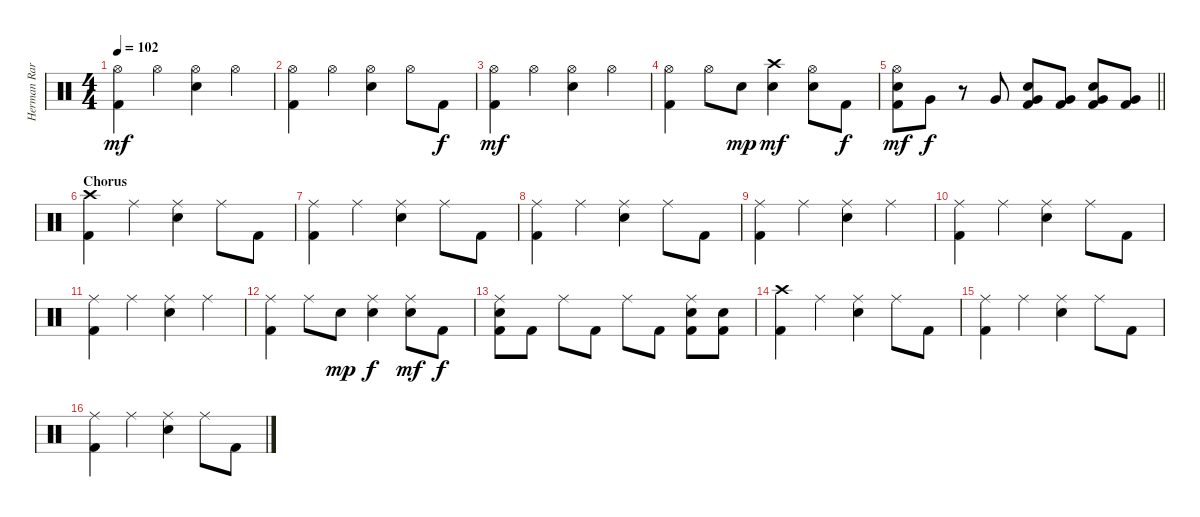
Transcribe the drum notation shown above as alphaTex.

\track ("Herman Rarebell" "Herman Rar") {instrument percussion}
\staff {score}
\articulation defaults
\ts (4 4)
\tempo 102
\clef neutral
\ks c
("Hi-Hat (open)" "Kick (hit) 2").4{dy mf} "Hi-Hat (open)".4 ("Hi-Hat (open)" "Electric Snare (hit)").4 "Hi-Hat (open)".4 |
("Hi-Hat (open)" "Kick (hit) 2").4 "Hi-Hat (open)".4 ("Hi-Hat (open)" "Electric Snare (hit)").4 "Hi-Hat (open)".8 "Kick (hit) 2".8{dy f} |
("Hi-Hat (open)" "Kick (hit) 2").4{dy mf} "Hi-Hat (open)".4 ("Hi-Hat (open)" "Electric Snare (hit)").4 "Hi-Hat (open)".4 |
("Hi-Hat (open)" "Kick (hit) 2").4 "Hi-Hat (open)".8 "Electric Snare (hit)".8{dy mp} ("Crash high (hit)" "Electric Snare (hit)").4{dy mf} ("Hi-Hat (open)" "Electric Snare (hit)").8 "Kick (hit) 2".8{dy f} |
\barLineRight lightlight
("Hi-Hat (open)" "Electric Snare (hit)" "Kick (hit) 2").8{dy mf} "Very Low Tom (hit)".8{dy f} r.8 "Very Low Tom (hit)".8 ("Very Low Tom (hit)" "Electric Snare (hit)" "Kick (hit) 2").8 ("Very Low Tom (hit)" "Kick (hit) 2").8 ("Very Low Tom (hit)" "Electric Snare (hit)" "Kick (hit) 2").8 ("Very Low Tom (hit)" "Kick (hit) 2").8 |
\section ("" "Chorus")
("Crash high (hit)" "Kick (hit) 2").4 "Ride (middle)".4 ("Ride (middle)" "Electric Snare (hit)").4 "Ride (middle)".8 "Kick (hit) 2".8 |
("Ride (middle)" "Kick (hit) 2").4 "Ride (middle)".4 ("Ride (middle)" "Electric Snare (hit)").4 "Ride (middle)".8 "Kick (hit) 2".8 |
("Ride (middle)" "Kick (hit) 2").4 "Ride (middle)".4 ("Ride (middle)" "Electric Snare (hit)").4 "Ride (middle)".8 "Kick (hit) 2".8 |
("Ride (middle)" "Kick (hit) 2").4 "Ride (middle)".4 ("Ride (middle)" "Electric Snare (hit)").4 "Ride (middle)".4 |
("Ride (middle)" "Kick (hit) 2").4 "Ride (middle)".4 ("Ride (middle)" "Electric Snare (hit)").4 "Ride (middle)".8 "Kick (hit) 2".8 |
("Ride (middle)" "Kick (hit) 2").4 "Ride (middle)".4 ("Ride (middle)" "Electric Snare (hit)").4 "Ride (middle)".4 |
("Ride (middle)" "Kick (hit) 2").4 "Ride (middle)".8 "Electric Snare (hit)".8{dy mp} ("Ride (middle)" "Electric Snare (hit)").4{dy f} ("Ride (middle)" "Electric Snare (hit)").8{dy mf} "Kick (hit) 2".8{dy f} |
("Ride (middle)" "Electric Snare (hit)" "Kick (hit) 2").8 "Kick (hit) 2".8 "Ride (middle)".8 "Kick (hit) 2".8 "Ride (middle)".8 "Kick (hit) 2".8 ("Ride (middle)" "Electric Snare (hit)" "Kick (hit) 2").8 ("Electric Snare (hit)" "Kick (hit) 2").8 |
("Crash high (hit)" "Kick (hit) 2").4 "Ride (middle)".4 ("Ride (middle)" "Electric Snare (hit)").4 "Ride (middle)".8 "Kick (hit) 2".8 |
("Ride (middle)" "Kick (hit) 2").4 "Ride (middle)".4 ("Ride (middle)" "Electric Snare (hit)").4 "Ride (middle)".8 "Kick (hit) 2".8 |
("Ride (middle)" "Kick (hit) 2").4 "Ride (middle)".4 ("Ride (middle)" "Electric Snare (hit)").4 "Ride (middle)".8 "Kick (hit) 2".8
